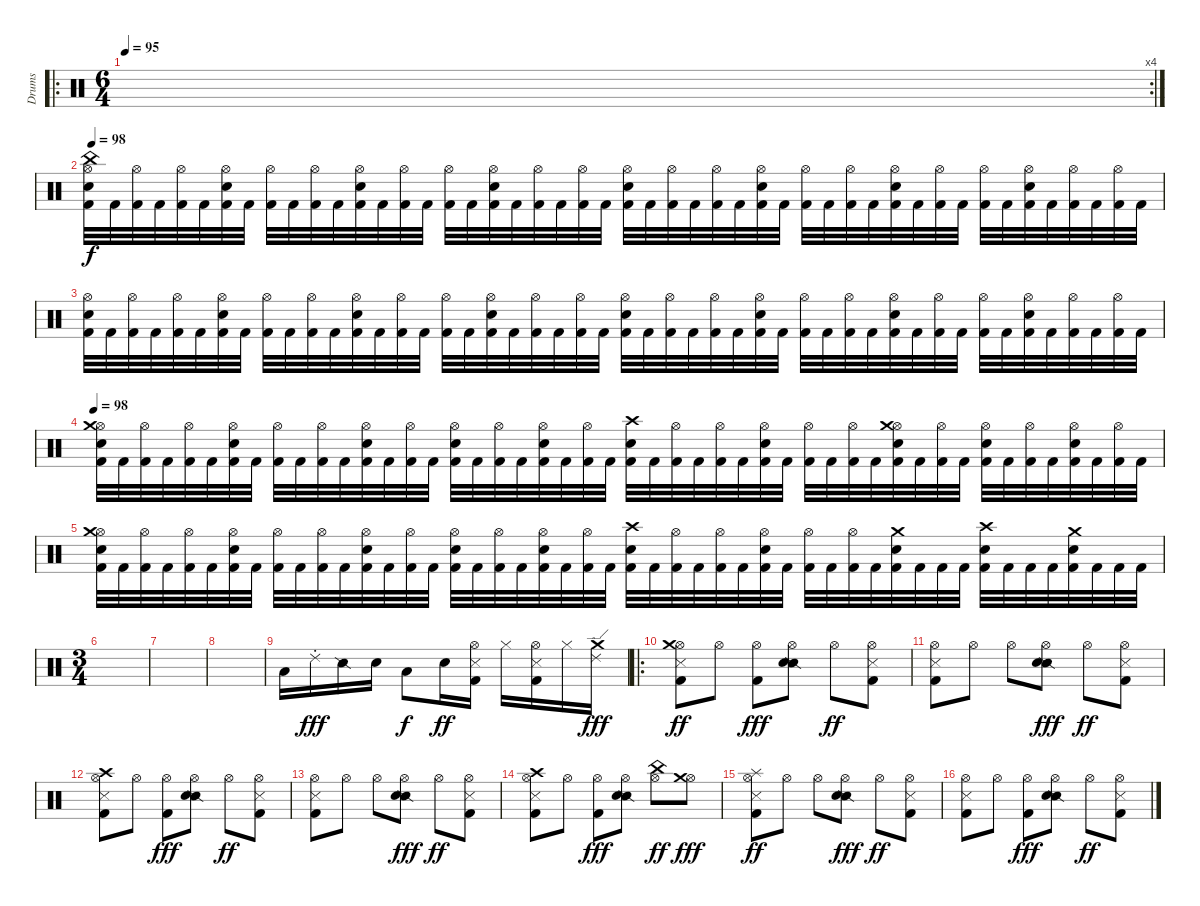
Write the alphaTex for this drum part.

\track ("Drums" "Drums") {instrument percussion}
\staff {score}
\articulation defaults
\ro
\rc 4
\ts (6 4)
\tempo 95
\clef neutral
\ks c
|
\tempo 98
("Hi-Hat (open)" "China (hit)" "Electric Snare (hit)" "Kick (hit) 2").32 "Kick (hit) 2".32 ("Hi-Hat (open)" "Kick (hit) 2").32 "Kick (hit) 2".32 ("Hi-Hat (open)" "Kick (hit) 2").32 "Kick (hit) 2".32 ("Hi-Hat (open)" "Electric Snare (hit)" "Kick (hit) 2").32 "Kick (hit) 2".32 ("Hi-Hat (open)" "Kick (hit) 2").32 "Kick (hit) 2".32 ("Hi-Hat (open)" "Kick (hit) 2").32 "Kick (hit) 2".32 ("Hi-Hat (open)" "Electric Snare (hit)" "Kick (hit) 2").32 "Kick (hit) 2".32 ("Hi-Hat (open)" "Kick (hit) 2").32 "Kick (hit) 2".32 ("Hi-Hat (open)" "Kick (hit) 2").32 "Kick (hit) 2".32 ("Hi-Hat (open)" "Electric Snare (hit)" "Kick (hit) 2").32 "Kick (hit) 2".32 ("Hi-Hat (open)" "Kick (hit) 2").32 "Kick (hit) 2".32 ("Hi-Hat (open)" "Kick (hit) 2").32 "Kick (hit) 2".32 ("Hi-Hat (open)" "Electric Snare (hit)" "Kick (hit) 2").32 "Kick (hit) 2".32 ("Hi-Hat (open)" "Kick (hit) 2").32 "Kick (hit) 2".32 ("Hi-Hat (open)" "Kick (hit) 2").32 "Kick (hit) 2".32 ("Hi-Hat (open)" "Electric Snare (hit)" "Kick (hit) 2").32 "Kick (hit) 2".32 ("Hi-Hat (open)" "Kick (hit) 2").32 "Kick (hit) 2".32 ("Hi-Hat (open)" "Kick (hit) 2").32 "Kick (hit) 2".32 ("Hi-Hat (open)" "Electric Snare (hit)" "Kick (hit) 2").32 "Kick (hit) 2".32 ("Hi-Hat (open)" "Kick (hit) 2").32 "Kick (hit) 2".32 ("Hi-Hat (open)" "Kick (hit) 2").32 "Kick (hit) 2".32 ("Hi-Hat (open)" "Electric Snare (hit)" "Kick (hit) 2").32 "Kick (hit) 2".32 ("Hi-Hat (open)" "Kick (hit) 2").32 "Kick (hit) 2".32 ("Hi-Hat (open)" "Kick (hit) 2").32 "Kick (hit) 2".32 |
("Hi-Hat (open)" "Electric Snare (hit)" "Kick (hit) 2").32 "Kick (hit) 2".32 ("Hi-Hat (open)" "Kick (hit) 2").32 "Kick (hit) 2".32 ("Hi-Hat (open)" "Kick (hit) 2").32 "Kick (hit) 2".32 ("Hi-Hat (open)" "Electric Snare (hit)" "Kick (hit) 2").32 "Kick (hit) 2".32 ("Hi-Hat (open)" "Kick (hit) 2").32 "Kick (hit) 2".32 ("Hi-Hat (open)" "Kick (hit) 2").32 "Kick (hit) 2".32 ("Hi-Hat (open)" "Electric Snare (hit)" "Kick (hit) 2").32 "Kick (hit) 2".32 ("Hi-Hat (open)" "Kick (hit) 2").32 "Kick (hit) 2".32 ("Hi-Hat (open)" "Kick (hit) 2").32 "Kick (hit) 2".32 ("Hi-Hat (open)" "Electric Snare (hit)" "Kick (hit) 2").32 "Kick (hit) 2".32 ("Hi-Hat (open)" "Kick (hit) 2").32 "Kick (hit) 2".32 ("Hi-Hat (open)" "Kick (hit) 2").32 "Kick (hit) 2".32 ("Hi-Hat (open)" "Electric Snare (hit)" "Kick (hit) 2").32 "Kick (hit) 2".32 ("Hi-Hat (open)" "Kick (hit) 2").32 "Kick (hit) 2".32 ("Hi-Hat (open)" "Kick (hit) 2").32 "Kick (hit) 2".32 ("Hi-Hat (open)" "Electric Snare (hit)" "Kick (hit) 2").32 "Kick (hit) 2".32 ("Hi-Hat (open)" "Kick (hit) 2").32 "Kick (hit) 2".32 ("Hi-Hat (open)" "Kick (hit) 2").32 "Kick (hit) 2".32 ("Hi-Hat (open)" "Electric Snare (hit)" "Kick (hit) 2").32 "Kick (hit) 2".32 ("Hi-Hat (open)" "Kick (hit) 2").32 "Kick (hit) 2".32 ("Hi-Hat (open)" "Kick (hit) 2").32 "Kick (hit) 2".32 ("Hi-Hat (open)" "Electric Snare (hit)" "Kick (hit) 2").32 "Kick (hit) 2".32 ("Hi-Hat (open)" "Kick (hit) 2").32 "Kick (hit) 2".32 ("Hi-Hat (open)" "Kick (hit) 2").32 "Kick (hit) 2".32 |
\tempo 98
("Hi-Hat (open)" "Crash medium (hit)" "Electric Snare (hit)" "Kick (hit) 2").32 "Kick (hit) 2".32 ("Hi-Hat (open)" "Kick (hit) 2").32 "Kick (hit) 2".32 ("Hi-Hat (open)" "Kick (hit) 2").32 "Kick (hit) 2".32 ("Hi-Hat (open)" "Electric Snare (hit)" "Kick (hit) 2").32 "Kick (hit) 2".32 ("Hi-Hat (open)" "Kick (hit) 2").32 "Kick (hit) 2".32 ("Hi-Hat (open)" "Kick (hit) 2").32 "Kick (hit) 2".32 ("Hi-Hat (open)" "Electric Snare (hit)" "Kick (hit) 2").32 "Kick (hit) 2".32 ("Hi-Hat (open)" "Kick (hit) 2").32 "Kick (hit) 2".32 ("Hi-Hat (open)" "Electric Snare (hit)" "Kick (hit) 2").32 "Kick (hit) 2".32 ("Hi-Hat (open)" "Kick (hit) 2").32 "Kick (hit) 2".32 ("Hi-Hat (open)" "Electric Snare (hit)" "Kick (hit) 2").32 "Kick (hit) 2".32 ("Hi-Hat (open)" "Kick (hit) 2").32 "Kick (hit) 2".32 ("Crash high (hit)" "Electric Snare (hit)" "Kick (hit) 2").32 "Kick (hit) 2".32 ("Hi-Hat (open)" "Kick (hit) 2").32 "Kick (hit) 2".32 ("Hi-Hat (open)" "Kick (hit) 2").32 "Kick (hit) 2".32 ("Hi-Hat (open)" "Electric Snare (hit)" "Kick (hit) 2").32 "Kick (hit) 2".32 ("Hi-Hat (open)" "Kick (hit) 2").32 "Kick (hit) 2".32 ("Hi-Hat (open)" "Kick (hit) 2").32 "Kick (hit) 2".32 ("Hi-Hat (open)" "Crash medium (hit)" "Electric Snare (hit)" "Kick (hit) 2").32 "Kick (hit) 2".32 ("Hi-Hat (open)" "Kick (hit) 2").32 "Kick (hit) 2".32 ("Hi-Hat (open)" "Electric Snare (hit)" "Kick (hit) 2").32 "Kick (hit) 2".32 ("Hi-Hat (open)" "Kick (hit) 2").32 "Kick (hit) 2".32 ("Hi-Hat (open)" "Electric Snare (hit)" "Kick (hit) 2").32 "Kick (hit) 2".32 ("Hi-Hat (open)" "Kick (hit) 2").32 "Kick (hit) 2".32 |
("Hi-Hat (open)" "Crash medium (hit)" "Electric Snare (hit)" "Kick (hit) 2").32 "Kick (hit) 2".32 ("Hi-Hat (open)" "Kick (hit) 2").32 "Kick (hit) 2".32 ("Hi-Hat (open)" "Kick (hit) 2").32 "Kick (hit) 2".32 ("Hi-Hat (open)" "Electric Snare (hit)" "Kick (hit) 2").32 "Kick (hit) 2".32 ("Hi-Hat (open)" "Kick (hit) 2").32 "Kick (hit) 2".32 ("Hi-Hat (open)" "Kick (hit) 2").32 "Kick (hit) 2".32 ("Hi-Hat (open)" "Electric Snare (hit)" "Kick (hit) 2").32 "Kick (hit) 2".32 ("Hi-Hat (open)" "Kick (hit) 2").32 "Kick (hit) 2".32 ("Hi-Hat (open)" "Electric Snare (hit)" "Kick (hit) 2").32 "Kick (hit) 2".32 ("Hi-Hat (open)" "Kick (hit) 2").32 "Kick (hit) 2".32 ("Hi-Hat (open)" "Electric Snare (hit)" "Kick (hit) 2").32 "Kick (hit) 2".32 ("Hi-Hat (open)" "Kick (hit) 2").32 "Kick (hit) 2".32 ("Crash high (hit)" "Electric Snare (hit)" "Kick (hit) 2").32 "Kick (hit) 2".32 ("Hi-Hat (open)" "Kick (hit) 2").32 "Kick (hit) 2".32 ("Hi-Hat (open)" "Kick (hit) 2").32 "Kick (hit) 2".32 ("Hi-Hat (open)" "Electric Snare (hit)" "Kick (hit) 2").32 "Kick (hit) 2".32 ("Hi-Hat (open)" "Kick (hit) 2").32 "Kick (hit) 2".32 ("Hi-Hat (open)" "Kick (hit) 2").32 "Kick (hit) 2".32 ("Crash medium (hit)" "Electric Snare (hit)" "Kick (hit) 2").32 "Kick (hit) 2".32 "Kick (hit) 2".32 "Kick (hit) 2".32 ("Crash high (hit)" "Electric Snare (hit)" "Kick (hit) 2").32 "Kick (hit) 2".32 "Kick (hit) 2".32 "Kick (hit) 2".32 ("Crash medium (hit)" "Electric Snare (hit)" "Kick (hit) 2").32 "Kick (hit) 2".32 "Kick (hit) 2".32 "Kick (hit) 2".32 |
\ts (3 4)
|
|
|
"Low Tom (hit)".16 "Ride (choke) 2".16{dy fff} "Snare (side stick) 2".16 "Electric Snare (hit)".16 "Low Tom (hit)".8{dy f} "Electric Snare (hit)".16{dy ff} ("Hi-Hat (open)" "Metronome (hit)" "Kick (hit) 2").16 "Hi-Hat (closed)".16 ("Hi-Hat (open)" "Metronome (hit)" "Kick (hit) 2").16 "Hi-Hat (closed)".16 ("Ride (edge) 2" "Crash medium (hit)").16{dy fff} |
\ro
("Hi-Hat (open)" "Crash medium (hit)" "Metronome (hit)" "Kick (hit) 2").8{dy ff balance 8} "Hi-Hat (open)".8 ("Hi-Hat (open)" "Kick (hit) 2").8{dy fff} ("Hi-Hat (open)" "Snare (side stick) 2" "Electric Snare (hit)").8 "Hi-Hat (open)".8{dy ff} ("Hi-Hat (open)" "Metronome (hit)" "Kick (hit) 2").8 |
("Hi-Hat (open)" "Metronome (hit)" "Kick (hit) 2").8 "Hi-Hat (open)".8 "Hi-Hat (open)".8 ("Hi-Hat (open)" "Snare (side stick) 2" "Electric Snare (hit)").8{dy fff} "Hi-Hat (open)".8{dy ff} ("Hi-Hat (open)" "Metronome (hit)" "Kick (hit) 2").8 |
("Hi-Hat (open)" "Crash high (hit)" "Metronome (hit)" "Kick (hit) 2").8 "Hi-Hat (open)".8 ("Hi-Hat (open)" "Kick (hit) 2").8{dy fff} ("Hi-Hat (open)" "Snare (side stick) 2" "Electric Snare (hit)").8 "Hi-Hat (open)".8{dy ff} ("Hi-Hat (open)" "Metronome (hit)" "Kick (hit) 2").8 |
("Hi-Hat (open)" "Metronome (hit)" "Kick (hit) 2").8 "Hi-Hat (open)".8 "Hi-Hat (open)".8 ("Hi-Hat (open)" "Snare (side stick) 2" "Electric Snare (hit)").8{dy fff} "Hi-Hat (open)".8{dy ff} ("Hi-Hat (open)" "Metronome (hit)" "Kick (hit) 2").8 |
("Hi-Hat (open)" "Crash high (hit)" "Metronome (hit)" "Kick (hit) 2").8 "Hi-Hat (open)".8 ("Hi-Hat (open)" "Kick (hit) 2").8{dy fff} ("Hi-Hat (open)" "Snare (side stick) 2" "Electric Snare (hit)").8 ("Hi-Hat (open)" "China (hit)").8{dy ff} ("Hi-Hat (open)" "Crash medium (hit)").8{dy fff} |
("Hi-Hat (open)" "Splash (hit)" "Metronome (hit)" "Kick (hit) 2").8{dy ff} "Hi-Hat (open)".8 "Hi-Hat (open)".8 ("Hi-Hat (open)" "Snare (side stick) 2" "Electric Snare (hit)").8{dy fff} "Hi-Hat (open)".8{dy ff} ("Hi-Hat (open)" "Metronome (hit)" "Kick (hit) 2").8 |
("Hi-Hat (open)" "Metronome (hit)" "Kick (hit) 2").8 "Hi-Hat (open)".8 ("Hi-Hat (open)" "Kick (hit) 2").8{dy fff} ("Hi-Hat (open)" "Snare (side stick) 2" "Electric Snare (hit)").8 "Hi-Hat (open)".8{dy ff} ("Hi-Hat (open)" "Metronome (hit)" "Kick (hit) 2").8
